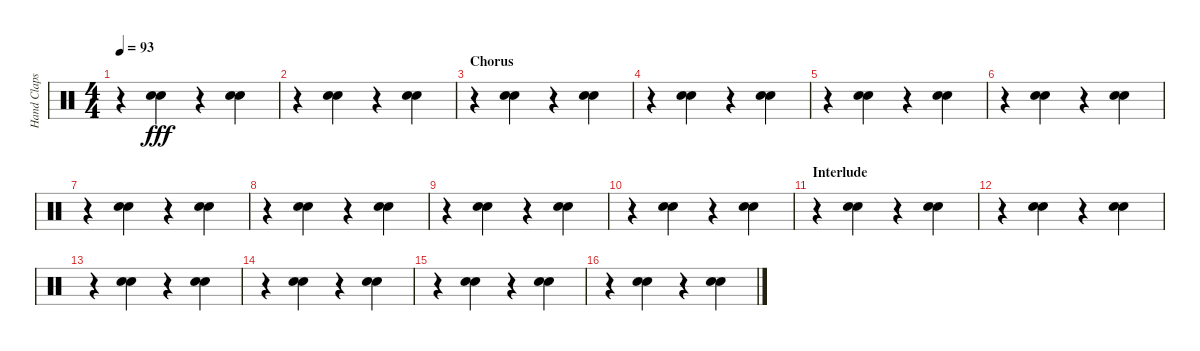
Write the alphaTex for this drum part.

\track ("Hand Claps" "Hand Claps") {instrument percussion}
\staff {score}
\articulation defaults
\ts (4 4)
\tempo 93
\clef neutral
\ks c
r.4{dy fff} ("Hand Clap (hit)" "Hand Clap (hit)").4 r.4 ("Hand Clap (hit)" "Hand Clap (hit)").4 |
r.4 ("Hand Clap (hit)" "Hand Clap (hit)").4 r.4 ("Hand Clap (hit)" "Hand Clap (hit)").4 |
\section ("" "Chorus")
r.4 ("Hand Clap (hit)" "Hand Clap (hit)").4 r.4 ("Hand Clap (hit)" "Hand Clap (hit)").4 |
r.4 ("Hand Clap (hit)" "Hand Clap (hit)").4 r.4 ("Hand Clap (hit)" "Hand Clap (hit)").4 |
r.4 ("Hand Clap (hit)" "Hand Clap (hit)").4 r.4 ("Hand Clap (hit)" "Hand Clap (hit)").4 |
r.4 ("Hand Clap (hit)" "Hand Clap (hit)").4 r.4 ("Hand Clap (hit)" "Hand Clap (hit)").4 |
r.4 ("Hand Clap (hit)" "Hand Clap (hit)").4 r.4 ("Hand Clap (hit)" "Hand Clap (hit)").4 |
r.4 ("Hand Clap (hit)" "Hand Clap (hit)").4 r.4 ("Hand Clap (hit)" "Hand Clap (hit)").4 |
r.4 ("Hand Clap (hit)" "Hand Clap (hit)").4 r.4 ("Hand Clap (hit)" "Hand Clap (hit)").4 |
r.4 ("Hand Clap (hit)" "Hand Clap (hit)").4 r.4 ("Hand Clap (hit)" "Hand Clap (hit)").4 |
\section ("" "Interlude")
r.4 ("Hand Clap (hit)" "Hand Clap (hit)").4 r.4 ("Hand Clap (hit)" "Hand Clap (hit)").4 |
r.4 ("Hand Clap (hit)" "Hand Clap (hit)").4 r.4 ("Hand Clap (hit)" "Hand Clap (hit)").4 |
r.4 ("Hand Clap (hit)" "Hand Clap (hit)").4 r.4 ("Hand Clap (hit)" "Hand Clap (hit)").4 |
r.4 ("Hand Clap (hit)" "Hand Clap (hit)").4 r.4 ("Hand Clap (hit)" "Hand Clap (hit)").4 |
r.4 ("Hand Clap (hit)" "Hand Clap (hit)").4 r.4 ("Hand Clap (hit)" "Hand Clap (hit)").4 |
r.4 ("Hand Clap (hit)" "Hand Clap (hit)").4 r.4 ("Hand Clap (hit)" "Hand Clap (hit)").4
